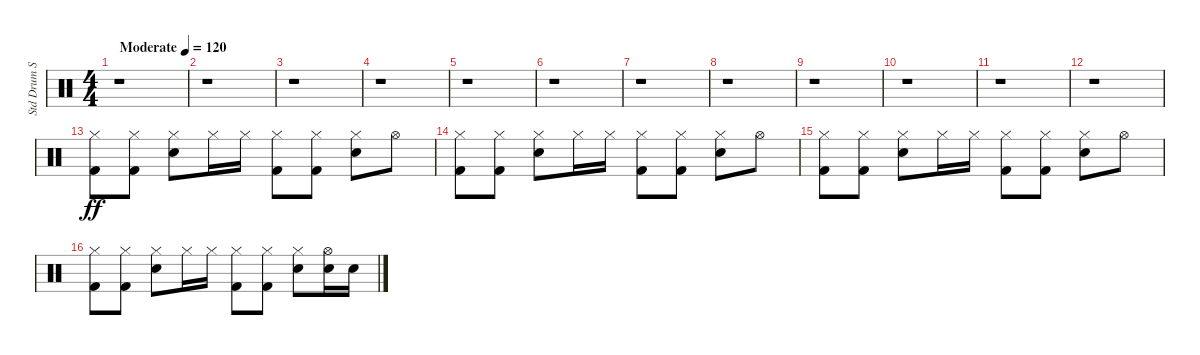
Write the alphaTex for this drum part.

\track ("Std Drum Set 1" "Std Drum S") {instrument percussion}
\staff {score}
\articulation defaults
\ts (4 4)
\tempo (120 "Moderate")
\clef neutral
\ks c
r.1{dy ff} |
r.1 |
r.1 |
r.1 |
r.1 |
r.1 |
r.1 |
r.1 |
r.1 |
r.1 |
r.1 |
r.1 |
("Hi-Hat (closed)" "Kick (hit) 2").8 ("Kick (hit) 2" "Hi-Hat (closed)").8 ("Snare (hit) 2" "Hi-Hat (closed)").8 "Hi-Hat (closed)".16 "Hi-Hat (closed)".16 ("Kick (hit) 2" "Hi-Hat (closed)").8 ("Hi-Hat (closed)" "Kick (hit) 2").8 ("Hi-Hat (closed)" "Snare (hit) 2").8 "Hi-Hat (open)".8 |
("Kick (hit) 2" "Hi-Hat (closed)").8 ("Hi-Hat (closed)" "Kick (hit) 2").8 ("Snare (hit) 2" "Hi-Hat (closed)").8 "Hi-Hat (closed)".16 "Hi-Hat (closed)".16 ("Hi-Hat (closed)" "Kick (hit) 2").8 ("Kick (hit) 2" "Hi-Hat (closed)").8 ("Hi-Hat (closed)" "Snare (hit) 2").8 "Hi-Hat (open)".8 |
("Hi-Hat (closed)" "Kick (hit) 2").8 ("Hi-Hat (closed)" "Kick (hit) 2").8 ("Hi-Hat (closed)" "Snare (hit) 2").8 "Hi-Hat (closed)".16 "Hi-Hat (closed)".16 ("Hi-Hat (closed)" "Kick (hit) 2").8 ("Hi-Hat (closed)" "Kick (hit) 2").8 ("Hi-Hat (closed)" "Snare (hit) 2").8 "Hi-Hat (open)".8 |
("Hi-Hat (closed)" "Kick (hit) 2").8 ("Hi-Hat (closed)" "Kick (hit) 2").8 ("Hi-Hat (closed)" "Snare (hit) 2").8 "Hi-Hat (closed)".16 "Hi-Hat (closed)".16 ("Hi-Hat (closed)" "Kick (hit) 2").8 ("Hi-Hat (closed)" "Kick (hit) 2").8 ("Hi-Hat (closed)" "Snare (hit) 2").8 ("Snare (hit) 2" "Hi-Hat (open)").16 "Snare (hit) 2".16
